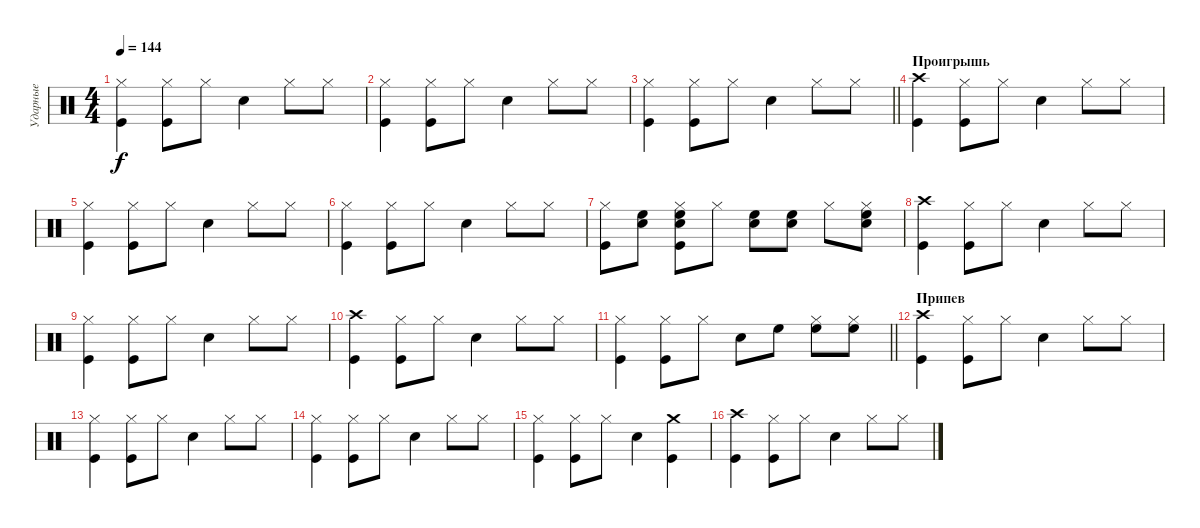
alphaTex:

\track ("Ударные" "Ударные") {instrument percussion}
\staff {score}
\articulation defaults
\ts (4 4)
\tempo 144
\clef neutral
\ks c
("Hi-Hat (closed)" "Kick (hit)").4{dy f} ("Hi-Hat (closed)" "Kick (hit)").8 "Hi-Hat (closed)".8 "Snare (hit) 2".4 "Hi-Hat (closed)".8 "Hi-Hat (closed)".8 |
("Hi-Hat (closed)" "Kick (hit)").4 ("Hi-Hat (closed)" "Kick (hit)").8 "Hi-Hat (closed)".8 "Snare (hit) 2".4 "Hi-Hat (closed)".8 "Hi-Hat (closed)".8 |
\barLineRight lightlight
("Hi-Hat (closed)" "Kick (hit)").4 ("Hi-Hat (closed)" "Kick (hit)").8 "Hi-Hat (closed)".8 "Snare (hit) 2".4 "Hi-Hat (closed)".8 "Hi-Hat (closed)".8 |
\section ("" "Проигрышь")
("Crash high (hit)" "Kick (hit)").4 ("Hi-Hat (closed)" "Kick (hit)").8 "Hi-Hat (closed)".8 "Snare (hit) 2".4 "Hi-Hat (closed)".8 "Hi-Hat (closed)".8 |
("Hi-Hat (closed)" "Kick (hit)").4 ("Hi-Hat (closed)" "Kick (hit)").8 "Hi-Hat (closed)".8 "Snare (hit) 2".4 "Hi-Hat (closed)".8 "Hi-Hat (closed)".8 |
("Hi-Hat (closed)" "Kick (hit)").4 ("Hi-Hat (closed)" "Kick (hit)").8 "Hi-Hat (closed)".8 "Snare (hit) 2".4 "Hi-Hat (closed)".8 "Hi-Hat (closed)".8 |
("Hi-Hat (closed)" "Kick (hit)").8 ("High Floor Tom (hit)" "Snare (hit) 2").8 ("Hi-Hat (closed)" "High Floor Tom (hit)" "Snare (hit) 2" "Kick (hit)").8 "Hi-Hat (closed)".8 ("High Floor Tom (hit)" "Snare (hit) 2").8 ("High Floor Tom (hit)" "Snare (hit) 2").8 "Hi-Hat (closed)".8 ("Hi-Hat (closed)" "High Floor Tom (hit)" "Snare (hit) 2").8 |
("Crash high (hit)" "Kick (hit)").4 ("Hi-Hat (closed)" "Kick (hit)").8 "Hi-Hat (closed)".8 "Snare (hit) 2".4 "Hi-Hat (closed)".8 "Hi-Hat (closed)".8 |
("Hi-Hat (closed)" "Kick (hit)").4 ("Hi-Hat (closed)" "Kick (hit)").8 "Hi-Hat (closed)".8 "Snare (hit) 2".4 "Hi-Hat (closed)".8 "Hi-Hat (closed)".8 |
("Crash high (hit)" "Kick (hit)").4 ("Hi-Hat (closed)" "Kick (hit)").8 "Hi-Hat (closed)".8 "Snare (hit) 2".4 "Hi-Hat (closed)".8 "Hi-Hat (closed)".8 |
\barLineRight lightlight
("Hi-Hat (closed)" "Kick (hit)").4 ("Hi-Hat (closed)" "Kick (hit)").8 "Hi-Hat (closed)".8 "Snare (hit) 2".8 "High Floor Tom (hit)".8 ("Hi-Hat (closed)" "High Floor Tom (hit)").8 ("Hi-Hat (closed)" "High Floor Tom (hit)").8 |
\section ("" "Припев")
("Crash high (hit)" "Kick (hit)").4 ("Hi-Hat (closed)" "Kick (hit)").8 "Hi-Hat (closed)".8 "Snare (hit) 2".4 "Hi-Hat (closed)".8 "Hi-Hat (closed)".8 |
("Hi-Hat (closed)" "Kick (hit)").4 ("Hi-Hat (closed)" "Kick (hit)").8 "Hi-Hat (closed)".8 "Snare (hit) 2".4 "Hi-Hat (closed)".8 "Hi-Hat (closed)".8 |
("Hi-Hat (closed)" "Kick (hit)").4 ("Hi-Hat (closed)" "Kick (hit)").8 "Hi-Hat (closed)".8 "Snare (hit) 2".4 "Hi-Hat (closed)".8 "Hi-Hat (closed)".8 |
("Hi-Hat (closed)" "Kick (hit)").4 ("Hi-Hat (closed)" "Kick (hit)").8 "Hi-Hat (closed)".8 "Snare (hit) 2".4 ("Crash medium (hit)" "Kick (hit)").4 |
("Crash high (hit)" "Kick (hit)").4 ("Hi-Hat (closed)" "Kick (hit)").8 "Hi-Hat (closed)".8 "Snare (hit) 2".4 "Hi-Hat (closed)".8 "Hi-Hat (closed)".8
